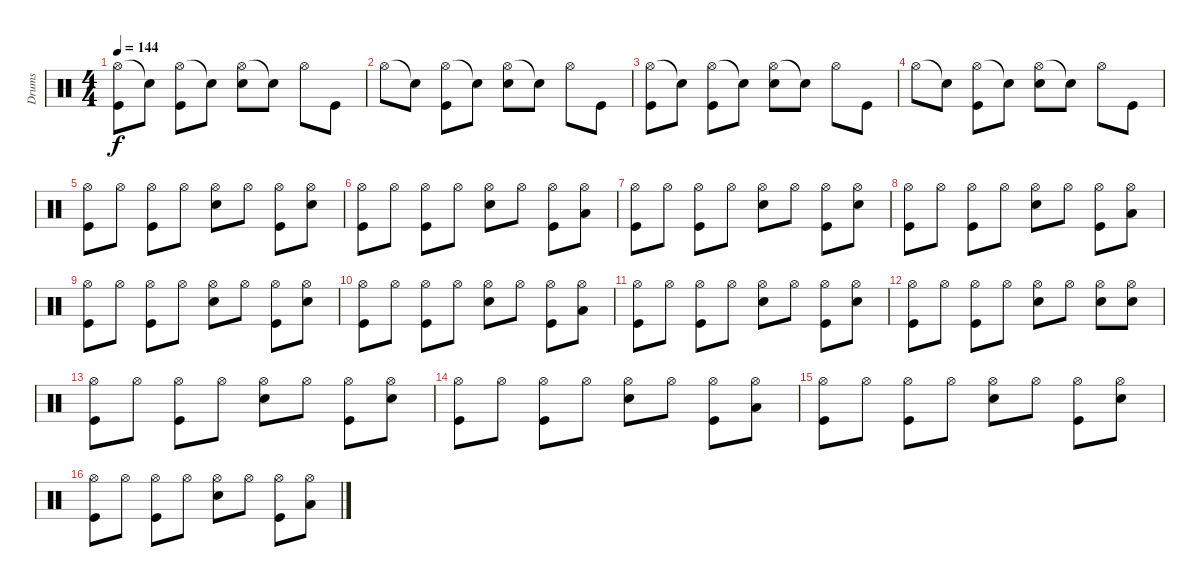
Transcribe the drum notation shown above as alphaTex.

\track ("Drums               " "Drums     ") {instrument percussion}
\staff {score}
\articulation defaults
\ts (4 4)
\tempo 144
\clef neutral
\ks c
("Hi-Hat (open)" "Kick (hit)").8{dy f} "Snare (hit)"{t}.8 ("Hi-Hat (open)" "Kick (hit)").8 "Snare (hit)"{t}.8 ("Hi-Hat (open)" "Snare (hit) 2").8 "Snare (hit)"{t}.8 "Hi-Hat (open)".8 "Kick (hit)".8 |
"Hi-Hat (open)".8 "Snare (hit)"{t}.8 ("Hi-Hat (open)" "Kick (hit)").8 "Snare (hit)"{t}.8 ("Hi-Hat (open)" "Snare (hit) 2").8 "Snare (hit)"{t}.8 "Hi-Hat (open)".8 "Kick (hit)".8 |
("Hi-Hat (open)" "Kick (hit)").8 "Snare (hit)"{t}.8 ("Hi-Hat (open)" "Kick (hit)").8 "Snare (hit)"{t}.8 ("Hi-Hat (open)" "Snare (hit) 2").8 "Snare (hit)"{t}.8 "Hi-Hat (open)".8 "Kick (hit)".8 |
"Hi-Hat (open)".8 "Snare (hit)"{t}.8 ("Hi-Hat (open)" "Kick (hit)").8 "Snare (hit)"{t}.8 ("Hi-Hat (open)" "Snare (hit) 2").8 "Snare (hit)"{t}.8 "Hi-Hat (open)".8 "Kick (hit)".8 |
("Hi-Hat (open)" "Kick (hit)").8 "Hi-Hat (open)".8 ("Hi-Hat (open)" "Kick (hit)").8 "Hi-Hat (open)".8 ("Hi-Hat (open)" "Snare (hit) 2").8 "Hi-Hat (open)".8 ("Hi-Hat (open)" "Kick (hit)").8 ("Hi-Hat (open)" "Snare (hit) 2").8 |
("Hi-Hat (open)" "Kick (hit)").8 "Hi-Hat (open)".8 ("Hi-Hat (open)" "Kick (hit)").8 "Hi-Hat (open)".8 ("Hi-Hat (open)" "Snare (hit) 2").8 "Hi-Hat (open)".8 ("Hi-Hat (open)" "Kick (hit)").8 ("Hi-Hat (open)" "Low Tom (hit)").8 |
("Hi-Hat (open)" "Kick (hit)").8 "Hi-Hat (open)".8 ("Hi-Hat (open)" "Kick (hit)").8 "Hi-Hat (open)".8 ("Hi-Hat (open)" "Snare (hit) 2").8 "Hi-Hat (open)".8 ("Hi-Hat (open)" "Kick (hit)").8 ("Hi-Hat (open)" "Snare (hit) 2").8 |
("Hi-Hat (open)" "Kick (hit)").8 "Hi-Hat (open)".8 ("Hi-Hat (open)" "Kick (hit)").8 "Hi-Hat (open)".8 ("Hi-Hat (open)" "Snare (hit) 2").8 "Hi-Hat (open)".8 ("Hi-Hat (open)" "Kick (hit)").8 ("Hi-Hat (open)" "Low Tom (hit)").8 |
("Hi-Hat (open)" "Kick (hit)").8 "Hi-Hat (open)".8 ("Hi-Hat (open)" "Kick (hit)").8 "Hi-Hat (open)".8 ("Hi-Hat (open)" "Snare (hit) 2").8 "Hi-Hat (open)".8 ("Hi-Hat (open)" "Kick (hit)").8 ("Hi-Hat (open)" "Snare (hit) 2").8 |
("Hi-Hat (open)" "Kick (hit)").8 "Hi-Hat (open)".8 ("Hi-Hat (open)" "Kick (hit)").8 "Hi-Hat (open)".8 ("Hi-Hat (open)" "Snare (hit) 2").8 "Hi-Hat (open)".8 ("Hi-Hat (open)" "Kick (hit)").8 ("Hi-Hat (open)" "Low Tom (hit)").8 |
("Hi-Hat (open)" "Kick (hit)").8 "Hi-Hat (open)".8 ("Hi-Hat (open)" "Kick (hit)").8 "Hi-Hat (open)".8 ("Hi-Hat (open)" "Snare (hit) 2").8 "Hi-Hat (open)".8 ("Hi-Hat (open)" "Kick (hit)").8 ("Hi-Hat (open)" "Snare (hit) 2").8 |
("Hi-Hat (open)" "Kick (hit)").8 "Hi-Hat (open)".8 ("Hi-Hat (open)" "Kick (hit)").8 "Hi-Hat (open)".8 ("Hi-Hat (open)" "Snare (hit) 2").8 "Hi-Hat (open)".8 ("Hi-Hat (open)" "Snare (hit) 2").8 ("Hi-Hat (open)" "Snare (hit) 2").8 |
("Hi-Hat (open)" "Kick (hit)").8 "Hi-Hat (open)".8 ("Hi-Hat (open)" "Kick (hit)").8 "Hi-Hat (open)".8 ("Hi-Hat (open)" "Snare (hit) 2").8 "Hi-Hat (open)".8 ("Hi-Hat (open)" "Kick (hit)").8 ("Hi-Hat (open)" "Snare (hit) 2").8 |
("Hi-Hat (open)" "Kick (hit)").8 "Hi-Hat (open)".8 ("Hi-Hat (open)" "Kick (hit)").8 "Hi-Hat (open)".8 ("Hi-Hat (open)" "Snare (hit) 2").8 "Hi-Hat (open)".8 ("Hi-Hat (open)" "Kick (hit)").8 ("Hi-Hat (open)" "Low Tom (hit)").8 |
("Hi-Hat (open)" "Kick (hit)").8 "Hi-Hat (open)".8 ("Hi-Hat (open)" "Kick (hit)").8 "Hi-Hat (open)".8 ("Hi-Hat (open)" "Snare (hit) 2").8 "Hi-Hat (open)".8 ("Hi-Hat (open)" "Kick (hit)").8 ("Hi-Hat (open)" "Snare (hit) 2").8 |
("Hi-Hat (open)" "Kick (hit)").8 "Hi-Hat (open)".8 ("Hi-Hat (open)" "Kick (hit)").8 "Hi-Hat (open)".8 ("Hi-Hat (open)" "Snare (hit) 2").8 "Hi-Hat (open)".8 ("Hi-Hat (open)" "Kick (hit)").8 ("Hi-Hat (open)" "Low Tom (hit)").8
